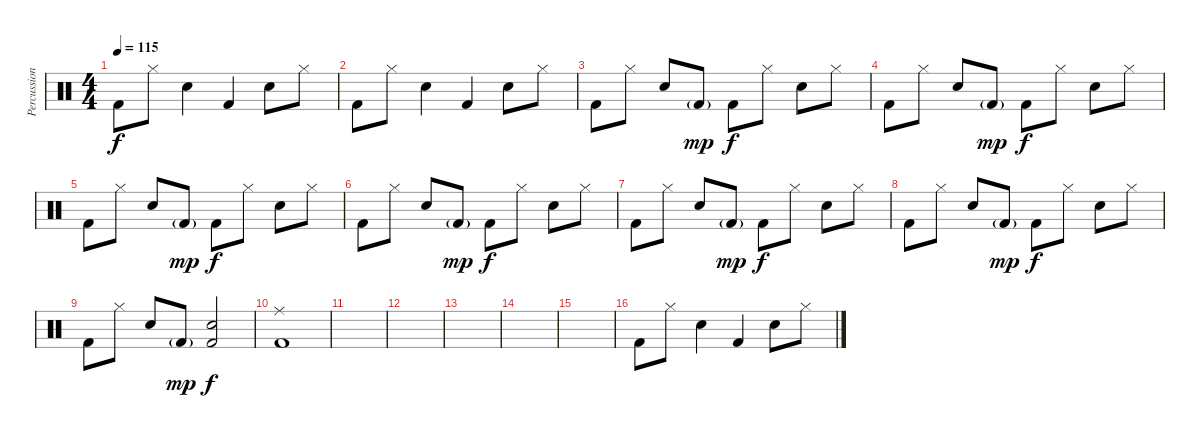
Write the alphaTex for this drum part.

\track ("Percussion" "Percussion") {instrument percussion}
\staff {score}
\articulation defaults
\ts (4 4)
\tempo 115
\clef neutral
\ks c "Kick (hit) 2".8{dy f} "Hi-Hat (closed)".8 "Snare (hit) 2".4 "Kick (hit) 2".4 "Snare (hit) 2".8 "Hi-Hat (closed)".8
|
"Kick (hit) 2".8 "Hi-Hat (closed)".8 "Snare (hit) 2".4 "Kick (hit) 2".4 "Snare (hit) 2".8 "Hi-Hat (closed)".8 |
"Kick (hit) 2".8 "Hi-Hat (closed)".8 "Snare (hit) 2".8 "Kick (hit) 2"{g}.8{dy mp} "Kick (hit) 2".8{dy f} "Hi-Hat (closed)".8 "Snare (hit) 2".8 "Hi-Hat (closed)".8 |
"Kick (hit) 2".8 "Hi-Hat (closed)".8 "Snare (hit) 2".8 "Kick (hit) 2"{g}.8{dy mp} "Kick (hit) 2".8{dy f} "Hi-Hat (closed)".8 "Snare (hit) 2".8 "Hi-Hat (closed)".8 |
"Kick (hit) 2".8 "Hi-Hat (closed)".8 "Snare (hit) 2".8 "Kick (hit) 2"{g}.8{dy mp} "Kick (hit) 2".8{dy f} "Hi-Hat (closed)".8 "Snare (hit) 2".8 "Hi-Hat (closed)".8 |
"Kick (hit) 2".8 "Hi-Hat (closed)".8 "Snare (hit) 2".8 "Kick (hit) 2"{g}.8{dy mp} "Kick (hit) 2".8{dy f} "Hi-Hat (closed)".8 "Snare (hit) 2".8 "Hi-Hat (closed)".8 |
"Kick (hit) 2".8 "Hi-Hat (closed)".8 "Snare (hit) 2".8 "Kick (hit) 2"{g}.8{dy mp} "Kick (hit) 2".8{dy f} "Hi-Hat (closed)".8 "Snare (hit) 2".8 "Hi-Hat (closed)".8 |
"Kick (hit) 2".8 "Hi-Hat (closed)".8 "Snare (hit) 2".8 "Kick (hit) 2"{g}.8{dy mp} "Kick (hit) 2".8{dy f} "Hi-Hat (closed)".8 "Snare (hit) 2".8 "Hi-Hat (closed)".8 |
"Kick (hit) 2".8 "Hi-Hat (closed)".8 "Snare (hit) 2".8 "Kick (hit) 2"{g}.8{dy mp} ("Snare (hit) 2" "Kick (hit) 2").2{dy f} |
("Ride (middle)" "Kick (hit) 2").1 |
|
|
|
|
|
"Kick (hit) 2".8 "Hi-Hat (closed)".8 "Snare (hit) 2".4 "Kick (hit) 2".4 "Snare (hit) 2".8 "Hi-Hat (closed)".8
